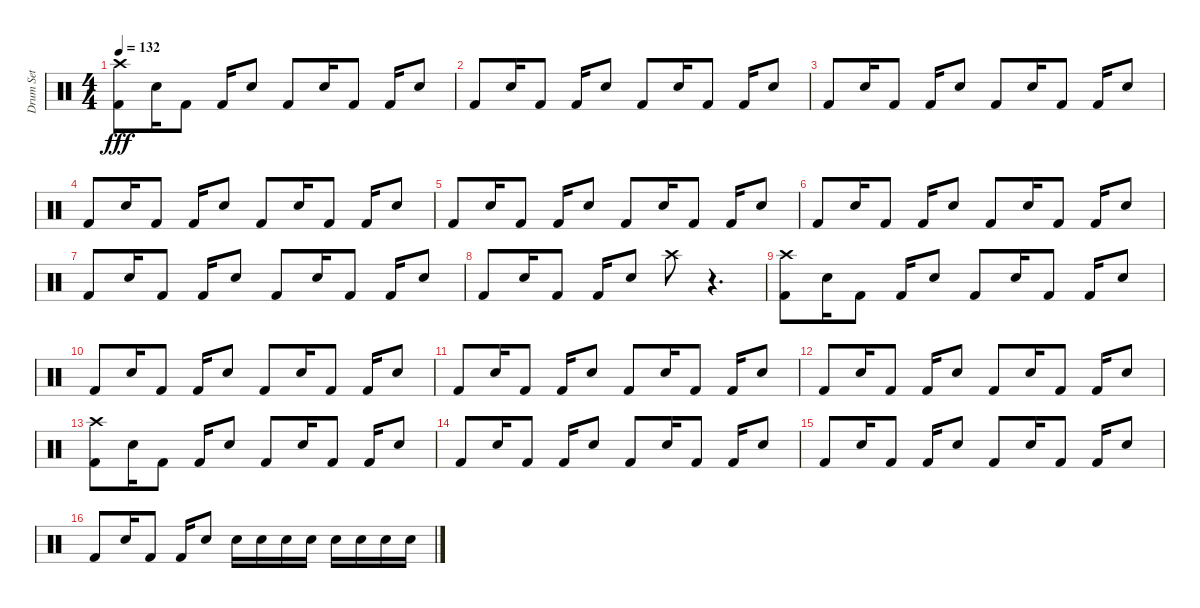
\track ("Drum Set" "Drum Set") {instrument percussion}
\staff {score}
\articulation defaults
\ts (4 4)
\tempo 132
\clef neutral
\ks c
("Kick (hit) 2" "Crash high (hit)").8{dy fff} "Electric Snare (hit)".16 "Kick (hit) 2".8 "Kick (hit) 2".16 "Electric Snare (hit)".8 "Kick (hit) 2".8 "Electric Snare (hit)".16 "Kick (hit) 2".8 "Kick (hit) 2".16 "Electric Snare (hit)".8 |
"Kick (hit) 2".8 "Electric Snare (hit)".16 "Kick (hit) 2".8 "Kick (hit) 2".16 "Electric Snare (hit)".8 "Kick (hit) 2".8 "Electric Snare (hit)".16 "Kick (hit) 2".8 "Kick (hit) 2".16 "Electric Snare (hit)".8 |
"Kick (hit) 2".8 "Electric Snare (hit)".16 "Kick (hit) 2".8 "Kick (hit) 2".16 "Electric Snare (hit)".8 "Kick (hit) 2".8 "Electric Snare (hit)".16 "Kick (hit) 2".8 "Kick (hit) 2".16 "Electric Snare (hit)".8 |
"Kick (hit) 2".8 "Electric Snare (hit)".16 "Kick (hit) 2".8 "Kick (hit) 2".16 "Electric Snare (hit)".8 "Kick (hit) 2".8 "Electric Snare (hit)".16 "Kick (hit) 2".8 "Kick (hit) 2".16 "Electric Snare (hit)".8 |
"Kick (hit) 2".8 "Electric Snare (hit)".16 "Kick (hit) 2".8 "Kick (hit) 2".16 "Electric Snare (hit)".8 "Kick (hit) 2".8 "Electric Snare (hit)".16 "Kick (hit) 2".8 "Kick (hit) 2".16 "Electric Snare (hit)".8 |
"Kick (hit) 2".8 "Electric Snare (hit)".16 "Kick (hit) 2".8 "Kick (hit) 2".16 "Electric Snare (hit)".8 "Kick (hit) 2".8 "Electric Snare (hit)".16 "Kick (hit) 2".8 "Kick (hit) 2".16 "Electric Snare (hit)".8 |
"Kick (hit) 2".8 "Electric Snare (hit)".16 "Kick (hit) 2".8 "Kick (hit) 2".16 "Electric Snare (hit)".8 "Kick (hit) 2".8 "Electric Snare (hit)".16 "Kick (hit) 2".8 "Kick (hit) 2".16 "Electric Snare (hit)".8 |
"Kick (hit) 2".8 "Electric Snare (hit)".16 "Kick (hit) 2".8 "Kick (hit) 2".16 "Electric Snare (hit)".8 "Crash high (hit)".8 r.4{d} |
("Kick (hit) 2" "Crash high (hit)").8 "Electric Snare (hit)".16 "Kick (hit) 2".8 "Kick (hit) 2".16 "Electric Snare (hit)".8 "Kick (hit) 2".8 "Electric Snare (hit)".16 "Kick (hit) 2".8 "Kick (hit) 2".16 "Electric Snare (hit)".8 |
"Kick (hit) 2".8 "Electric Snare (hit)".16 "Kick (hit) 2".8 "Kick (hit) 2".16 "Electric Snare (hit)".8 "Kick (hit) 2".8 "Electric Snare (hit)".16 "Kick (hit) 2".8 "Kick (hit) 2".16 "Electric Snare (hit)".8 |
"Kick (hit) 2".8 "Electric Snare (hit)".16 "Kick (hit) 2".8 "Kick (hit) 2".16 "Electric Snare (hit)".8 "Kick (hit) 2".8 "Electric Snare (hit)".16 "Kick (hit) 2".8 "Kick (hit) 2".16 "Electric Snare (hit)".8 |
"Kick (hit) 2".8 "Electric Snare (hit)".16 "Kick (hit) 2".8 "Kick (hit) 2".16 "Electric Snare (hit)".8 "Kick (hit) 2".8 "Electric Snare (hit)".16 "Kick (hit) 2".8 "Kick (hit) 2".16 "Electric Snare (hit)".8 |
("Kick (hit) 2" "Crash high (hit)").8 "Electric Snare (hit)".16 "Kick (hit) 2".8 "Kick (hit) 2".16 "Electric Snare (hit)".8 "Kick (hit) 2".8 "Electric Snare (hit)".16 "Kick (hit) 2".8 "Kick (hit) 2".16 "Electric Snare (hit)".8 |
"Kick (hit) 2".8 "Electric Snare (hit)".16 "Kick (hit) 2".8 "Kick (hit) 2".16 "Electric Snare (hit)".8 "Kick (hit) 2".8 "Electric Snare (hit)".16 "Kick (hit) 2".8 "Kick (hit) 2".16 "Electric Snare (hit)".8 |
"Kick (hit) 2".8 "Electric Snare (hit)".16 "Kick (hit) 2".8 "Kick (hit) 2".16 "Electric Snare (hit)".8 "Kick (hit) 2".8 "Electric Snare (hit)".16 "Kick (hit) 2".8 "Kick (hit) 2".16 "Electric Snare (hit)".8 |
"Kick (hit) 2".8 "Electric Snare (hit)".16 "Kick (hit) 2".8 "Kick (hit) 2".16 "Electric Snare (hit)".8 "Electric Snare (hit)".16 "Electric Snare (hit)".16 "Electric Snare (hit)".16 "Electric Snare (hit)".16 "Electric Snare (hit)".16 "Electric Snare (hit)".16 "Electric Snare (hit)".16 "Electric Snare (hit)".16
